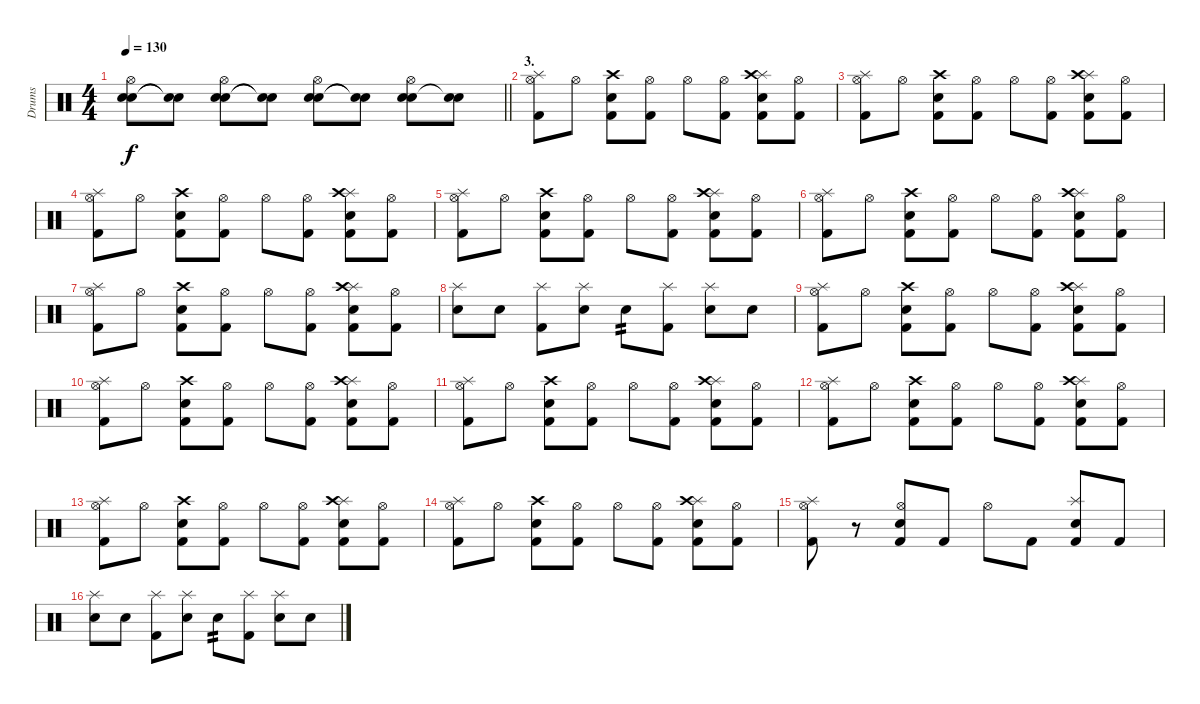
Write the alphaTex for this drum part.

\track ("Drums" "Drums") {instrument percussion}
\staff {score}
\articulation defaults
\ts (4 4)
\tempo 130
\clef neutral
\barLineRight lightlight
\ks c
("Snare (hit) 2" "Electric Snare (hit)" "Hi-Hat (open)").8{bd 240 dy f} ("Snare (hit)"{t} "Snare (hit)"{t}).8 ("Snare (hit) 2" "Electric Snare (hit)" "Hi-Hat (open)").8{bd 240} ("Snare (hit)"{t} "Snare (hit)"{t}).8 ("Snare (hit) 2" "Electric Snare (hit)" "Hi-Hat (open)").8{bd 240} ("Snare (hit)"{t} "Snare (hit)"{t}).8 ("Snare (hit) 2" "Electric Snare (hit)" "Hi-Hat (open)").8{bd 240} ("Snare (hit)"{t} "Electric Snare (hit)").8 |
\section ("" "3.")
("Splash (hit)" "Kick (hit) 2" "Hi-Hat (open)").8 "Hi-Hat (open)".8 ("Electric Snare (hit)" "Kick (hit) 2" "Crash high (hit)").8 ("Kick (hit) 2" "Hi-Hat (open)").8 "Hi-Hat (open)".8 ("Kick (hit) 2" "Hi-Hat (open)").8 ("Splash (hit)" "Electric Snare (hit)" "Kick (hit) 2" "Crash high (hit)").8 ("Kick (hit) 2" "Hi-Hat (open)").8 |
("Splash (hit)" "Kick (hit) 2" "Hi-Hat (open)").8 "Hi-Hat (open)".8 ("Electric Snare (hit)" "Kick (hit) 2" "Crash high (hit)").8 ("Kick (hit) 2" "Hi-Hat (open)").8 "Hi-Hat (open)".8 ("Kick (hit) 2" "Hi-Hat (open)").8 ("Splash (hit)" "Electric Snare (hit)" "Kick (hit) 2" "Crash high (hit)").8 ("Kick (hit) 2" "Hi-Hat (open)").8 |
("Splash (hit)" "Kick (hit) 2" "Hi-Hat (open)").8 "Hi-Hat (open)".8 ("Electric Snare (hit)" "Kick (hit) 2" "Crash high (hit)").8 ("Kick (hit) 2" "Hi-Hat (open)").8 "Hi-Hat (open)".8 ("Kick (hit) 2" "Hi-Hat (open)").8 ("Splash (hit)" "Electric Snare (hit)" "Kick (hit) 2" "Crash high (hit)").8 ("Kick (hit) 2" "Hi-Hat (open)").8 |
("Splash (hit)" "Kick (hit) 2" "Hi-Hat (open)").8 "Hi-Hat (open)".8 ("Electric Snare (hit)" "Kick (hit) 2" "Crash high (hit)").8 ("Kick (hit) 2" "Hi-Hat (open)").8 "Hi-Hat (open)".8 ("Kick (hit) 2" "Hi-Hat (open)").8 ("Splash (hit)" "Electric Snare (hit)" "Kick (hit) 2" "Crash high (hit)").8 ("Kick (hit) 2" "Hi-Hat (open)").8 |
("Splash (hit)" "Kick (hit) 2" "Hi-Hat (open)").8 "Hi-Hat (open)".8 ("Electric Snare (hit)" "Kick (hit) 2" "Crash high (hit)").8 ("Kick (hit) 2" "Hi-Hat (open)").8 "Hi-Hat (open)".8 ("Kick (hit) 2" "Hi-Hat (open)").8 ("Splash (hit)" "Electric Snare (hit)" "Kick (hit) 2" "Crash high (hit)").8 ("Kick (hit) 2" "Hi-Hat (open)").8 |
("Splash (hit)" "Kick (hit) 2" "Hi-Hat (open)").8 "Hi-Hat (open)".8 ("Electric Snare (hit)" "Kick (hit) 2" "Crash high (hit)").8 ("Kick (hit) 2" "Hi-Hat (open)").8 "Hi-Hat (open)".8 ("Kick (hit) 2" "Hi-Hat (open)").8 ("Splash (hit)" "Electric Snare (hit)" "Kick (hit) 2" "Crash high (hit)").8 ("Kick (hit) 2" "Hi-Hat (open)").8 |
("Splash (hit)" "Electric Snare (hit)").8 "Electric Snare (hit)".8 ("Splash (hit)" "Kick (hit) 2").8 ("Splash (hit)" "Electric Snare (hit)").8 "Electric Snare (hit)".8{tp 2} ("Splash (hit)" "Kick (hit) 2").8 ("Splash (hit)" "Electric Snare (hit)").8 "Electric Snare (hit)".8 |
("Splash (hit)" "Kick (hit) 2" "Hi-Hat (open)").8 "Hi-Hat (open)".8 ("Electric Snare (hit)" "Kick (hit) 2" "Crash high (hit)").8 ("Kick (hit) 2" "Hi-Hat (open)").8 "Hi-Hat (open)".8 ("Kick (hit) 2" "Hi-Hat (open)").8 ("Splash (hit)" "Electric Snare (hit)" "Kick (hit) 2" "Crash high (hit)").8 ("Kick (hit) 2" "Hi-Hat (open)").8 |
("Splash (hit)" "Kick (hit) 2" "Hi-Hat (open)").8 "Hi-Hat (open)".8 ("Electric Snare (hit)" "Kick (hit) 2" "Crash high (hit)").8 ("Kick (hit) 2" "Hi-Hat (open)").8 "Hi-Hat (open)".8 ("Kick (hit) 2" "Hi-Hat (open)").8 ("Splash (hit)" "Electric Snare (hit)" "Kick (hit) 2" "Crash high (hit)").8 ("Kick (hit) 2" "Hi-Hat (open)").8 |
("Splash (hit)" "Kick (hit) 2" "Hi-Hat (open)").8 "Hi-Hat (open)".8 ("Electric Snare (hit)" "Kick (hit) 2" "Crash high (hit)").8 ("Kick (hit) 2" "Hi-Hat (open)").8 "Hi-Hat (open)".8 ("Kick (hit) 2" "Hi-Hat (open)").8 ("Splash (hit)" "Electric Snare (hit)" "Kick (hit) 2" "Crash high (hit)").8 ("Kick (hit) 2" "Hi-Hat (open)").8 |
("Splash (hit)" "Kick (hit) 2" "Hi-Hat (open)").8 "Hi-Hat (open)".8 ("Electric Snare (hit)" "Kick (hit) 2" "Crash high (hit)").8 ("Kick (hit) 2" "Hi-Hat (open)").8 "Hi-Hat (open)".8 ("Kick (hit) 2" "Hi-Hat (open)").8 ("Splash (hit)" "Electric Snare (hit)" "Kick (hit) 2" "Crash high (hit)").8 ("Kick (hit) 2" "Hi-Hat (open)").8 |
("Splash (hit)" "Kick (hit) 2" "Hi-Hat (open)").8 "Hi-Hat (open)".8 ("Electric Snare (hit)" "Kick (hit) 2" "Crash high (hit)").8 ("Kick (hit) 2" "Hi-Hat (open)").8 "Hi-Hat (open)".8 ("Kick (hit) 2" "Hi-Hat (open)").8 ("Splash (hit)" "Electric Snare (hit)" "Kick (hit) 2" "Crash high (hit)").8 ("Kick (hit) 2" "Hi-Hat (open)").8 |
("Splash (hit)" "Kick (hit) 2" "Hi-Hat (open)").8 "Hi-Hat (open)".8 ("Electric Snare (hit)" "Kick (hit) 2" "Crash high (hit)").8 ("Kick (hit) 2" "Hi-Hat (open)").8 "Hi-Hat (open)".8 ("Kick (hit) 2" "Hi-Hat (open)").8 ("Splash (hit)" "Electric Snare (hit)" "Kick (hit) 2" "Crash high (hit)").8 ("Kick (hit) 2" "Hi-Hat (open)").8 |
("Splash (hit)" "Kick (hit) 2" "Hi-Hat (open)").8 r.8 ("Electric Snare (hit)" "Kick (hit) 2" "Hi-Hat (open)").8 "Kick (hit) 2".8 "Hi-Hat (open)".8 "Kick (hit) 2".8 ("Splash (hit)" "Electric Snare (hit)" "Kick (hit) 2").8 "Kick (hit) 2".8 |
("Splash (hit)" "Electric Snare (hit)").8 "Electric Snare (hit)".8 ("Splash (hit)" "Kick (hit) 2").8 ("Splash (hit)" "Electric Snare (hit)").8 "Electric Snare (hit)".8{tp 2} ("Splash (hit)" "Kick (hit) 2").8 ("Splash (hit)" "Electric Snare (hit)").8 "Electric Snare (hit)".8
